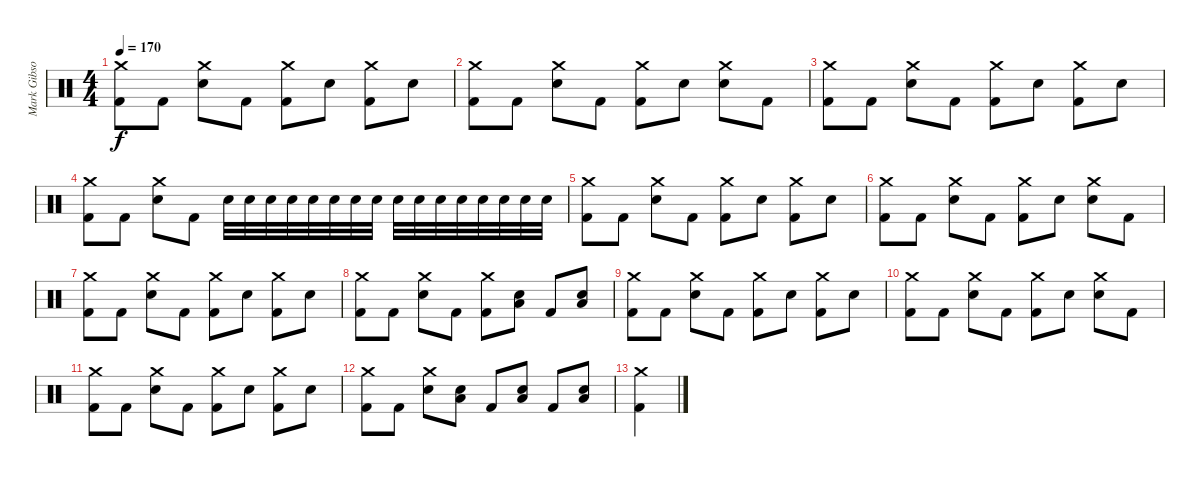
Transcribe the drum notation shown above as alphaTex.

\track ("Mark Gibson" "Mark Gibso") {instrument percussion}
\staff {score}
\articulation defaults
\ts (4 4)
\tempo 170
\clef neutral
\ks c
("Crash medium (hit)" "Kick (hit) 2").8{dy f} "Kick (hit) 2".8 ("Crash medium (hit)" "Electric Snare (hit)").8 "Kick (hit) 2".8 ("Crash medium (hit)" "Kick (hit) 2").8 "Electric Snare (hit)".8 ("Crash medium (hit)" "Kick (hit) 2").8 "Electric Snare (hit)".8 |
("Crash medium (hit)" "Kick (hit) 2").8 "Kick (hit) 2".8 ("Crash medium (hit)" "Electric Snare (hit)").8 "Kick (hit) 2".8 ("Crash medium (hit)" "Kick (hit) 2").8 "Electric Snare (hit)".8 ("Crash medium (hit)" "Electric Snare (hit)").8 "Kick (hit) 2".8 |
("Crash medium (hit)" "Kick (hit) 2").8 "Kick (hit) 2".8 ("Crash medium (hit)" "Electric Snare (hit)").8 "Kick (hit) 2".8 ("Crash medium (hit)" "Kick (hit) 2").8 "Electric Snare (hit)".8 ("Crash medium (hit)" "Kick (hit) 2").8 "Electric Snare (hit)".8 |
("Crash medium (hit)" "Kick (hit) 2").8 "Kick (hit) 2".8 ("Crash medium (hit)" "Electric Snare (hit)").8 "Kick (hit) 2".8 "Electric Snare (hit)".32 "Electric Snare (hit)".32 "Electric Snare (hit)".32 "Electric Snare (hit)".32 "Electric Snare (hit)".32 "Electric Snare (hit)".32 "Electric Snare (hit)".32 "Electric Snare (hit)".32 "Electric Snare (hit)".32 "Electric Snare (hit)".32 "Electric Snare (hit)".32 "Electric Snare (hit)".32 "Electric Snare (hit)".32 "Electric Snare (hit)".32 "Electric Snare (hit)".32 "Electric Snare (hit)".32 |
("Crash medium (hit)" "Kick (hit) 2").8 "Kick (hit) 2".8 ("Crash medium (hit)" "Electric Snare (hit)").8 "Kick (hit) 2".8 ("Crash medium (hit)" "Kick (hit) 2").8 "Electric Snare (hit)".8 ("Crash medium (hit)" "Kick (hit) 2").8 "Electric Snare (hit)".8 |
("Crash medium (hit)" "Kick (hit) 2").8 "Kick (hit) 2".8 ("Crash medium (hit)" "Electric Snare (hit)").8 "Kick (hit) 2".8 ("Crash medium (hit)" "Kick (hit) 2").8 "Electric Snare (hit)".8 ("Crash medium (hit)" "Electric Snare (hit)").8 "Kick (hit) 2".8 |
("Crash medium (hit)" "Kick (hit) 2").8 "Kick (hit) 2".8 ("Crash medium (hit)" "Electric Snare (hit)").8 "Kick (hit) 2".8 ("Crash medium (hit)" "Kick (hit) 2").8 "Electric Snare (hit)".8 ("Crash medium (hit)" "Kick (hit) 2").8 "Electric Snare (hit)".8 |
("Crash medium (hit)" "Kick (hit) 2").8 "Kick (hit) 2".8 ("Crash medium (hit)" "Electric Snare (hit)").8 "Kick (hit) 2".8 ("Crash medium (hit)" "Kick (hit) 2").8 ("Low Floor Tom (hit)" "Electric Snare (hit)").8 "Kick (hit) 2".8 ("Low Floor Tom (hit)" "Electric Snare (hit)").8 |
("Crash medium (hit)" "Kick (hit) 2").8 "Kick (hit) 2".8 ("Crash medium (hit)" "Electric Snare (hit)").8 "Kick (hit) 2".8 ("Crash medium (hit)" "Kick (hit) 2").8 "Electric Snare (hit)".8 ("Crash medium (hit)" "Kick (hit) 2").8 "Electric Snare (hit)".8 |
("Crash medium (hit)" "Kick (hit) 2").8 "Kick (hit) 2".8 ("Crash medium (hit)" "Electric Snare (hit)").8 "Kick (hit) 2".8 ("Crash medium (hit)" "Kick (hit) 2").8 "Electric Snare (hit)".8 ("Crash medium (hit)" "Electric Snare (hit)").8 "Kick (hit) 2".8 |
("Crash medium (hit)" "Kick (hit) 2").8 "Kick (hit) 2".8 ("Crash medium (hit)" "Electric Snare (hit)").8 "Kick (hit) 2".8 ("Crash medium (hit)" "Kick (hit) 2").8 "Electric Snare (hit)".8 ("Crash medium (hit)" "Kick (hit) 2").8 "Electric Snare (hit)".8 |
("Crash medium (hit)" "Kick (hit) 2").8 "Kick (hit) 2".8 ("Crash medium (hit)" "Electric Snare (hit)").8 ("Low Floor Tom (hit)" "Electric Snare (hit)").8 "Kick (hit) 2".8 ("Low Floor Tom (hit)" "Electric Snare (hit)").8 "Kick (hit) 2".8 ("Low Floor Tom (hit)" "Electric Snare (hit)").8 |
("Crash medium (hit)" "Kick (hit) 2").4
